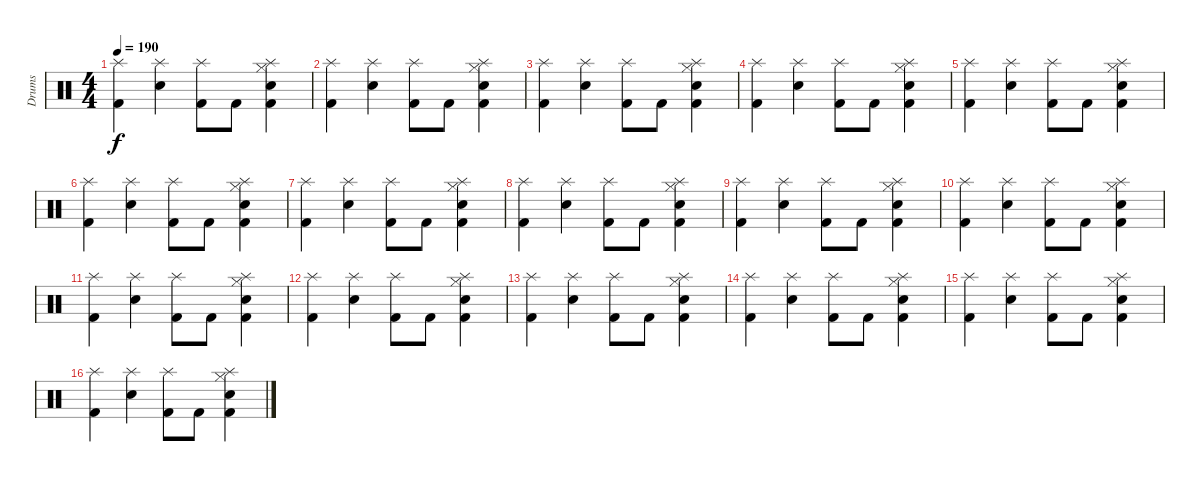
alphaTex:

\track ("Drums" "Drums") {instrument percussion}
\staff {score}
\articulation defaults
\ts (4 4)
\tempo 190
\clef neutral
\ks c
("Splash (hit)" "Kick (hit) 2").4{dy f} ("Splash (hit)" "Electric Snare (hit)").4 ("Splash (hit)" "Kick (hit) 2").8 "Kick (hit) 2".8 ("Splash (hit)" "Hi-Hat (closed)" "Electric Snare (hit)" "Kick (hit) 2").4 |
("Splash (hit)" "Kick (hit) 2").4 ("Splash (hit)" "Electric Snare (hit)").4 ("Splash (hit)" "Kick (hit) 2").8 "Kick (hit) 2".8 ("Splash (hit)" "Hi-Hat (closed)" "Electric Snare (hit)" "Kick (hit) 2").4 |
("Splash (hit)" "Kick (hit) 2").4 ("Splash (hit)" "Electric Snare (hit)").4 ("Splash (hit)" "Kick (hit) 2").8 "Kick (hit) 2".8 ("Splash (hit)" "Hi-Hat (closed)" "Electric Snare (hit)" "Kick (hit) 2").4 |
("Splash (hit)" "Kick (hit) 2").4 ("Splash (hit)" "Electric Snare (hit)").4 ("Splash (hit)" "Kick (hit) 2").8 "Kick (hit) 2".8 ("Splash (hit)" "Hi-Hat (closed)" "Electric Snare (hit)" "Kick (hit) 2").4 |
("Splash (hit)" "Kick (hit) 2").4 ("Splash (hit)" "Electric Snare (hit)").4 ("Splash (hit)" "Kick (hit) 2").8 "Kick (hit) 2".8 ("Splash (hit)" "Hi-Hat (closed)" "Electric Snare (hit)" "Kick (hit) 2").4 |
("Splash (hit)" "Kick (hit) 2").4 ("Splash (hit)" "Electric Snare (hit)").4 ("Splash (hit)" "Kick (hit) 2").8 "Kick (hit) 2".8 ("Splash (hit)" "Hi-Hat (closed)" "Electric Snare (hit)" "Kick (hit) 2").4 |
("Splash (hit)" "Kick (hit) 2").4 ("Splash (hit)" "Electric Snare (hit)").4 ("Splash (hit)" "Kick (hit) 2").8 "Kick (hit) 2".8 ("Splash (hit)" "Hi-Hat (closed)" "Electric Snare (hit)" "Kick (hit) 2").4 |
("Splash (hit)" "Kick (hit) 2").4 ("Splash (hit)" "Electric Snare (hit)").4 ("Splash (hit)" "Kick (hit) 2").8 "Kick (hit) 2".8 ("Splash (hit)" "Hi-Hat (closed)" "Electric Snare (hit)" "Kick (hit) 2").4 |
("Splash (hit)" "Kick (hit) 2").4 ("Splash (hit)" "Electric Snare (hit)").4 ("Splash (hit)" "Kick (hit) 2").8 "Kick (hit) 2".8 ("Splash (hit)" "Hi-Hat (closed)" "Electric Snare (hit)" "Kick (hit) 2").4 |
("Splash (hit)" "Kick (hit) 2").4 ("Splash (hit)" "Electric Snare (hit)").4 ("Splash (hit)" "Kick (hit) 2").8 "Kick (hit) 2".8 ("Splash (hit)" "Hi-Hat (closed)" "Electric Snare (hit)" "Kick (hit) 2").4 |
("Splash (hit)" "Kick (hit) 2").4 ("Splash (hit)" "Electric Snare (hit)").4 ("Splash (hit)" "Kick (hit) 2").8 "Kick (hit) 2".8 ("Splash (hit)" "Hi-Hat (closed)" "Electric Snare (hit)" "Kick (hit) 2").4 |
("Splash (hit)" "Kick (hit) 2").4 ("Splash (hit)" "Electric Snare (hit)").4 ("Splash (hit)" "Kick (hit) 2").8 "Kick (hit) 2".8 ("Splash (hit)" "Hi-Hat (closed)" "Electric Snare (hit)" "Kick (hit) 2").4 |
("Splash (hit)" "Kick (hit) 2").4 ("Splash (hit)" "Electric Snare (hit)").4 ("Splash (hit)" "Kick (hit) 2").8 "Kick (hit) 2".8 ("Splash (hit)" "Hi-Hat (closed)" "Electric Snare (hit)" "Kick (hit) 2").4 |
("Splash (hit)" "Kick (hit) 2").4 ("Splash (hit)" "Electric Snare (hit)").4 ("Splash (hit)" "Kick (hit) 2").8 "Kick (hit) 2".8 ("Splash (hit)" "Hi-Hat (closed)" "Electric Snare (hit)" "Kick (hit) 2").4 |
("Splash (hit)" "Kick (hit) 2").4 ("Splash (hit)" "Electric Snare (hit)").4 ("Splash (hit)" "Kick (hit) 2").8 "Kick (hit) 2".8 ("Splash (hit)" "Hi-Hat (closed)" "Electric Snare (hit)" "Kick (hit) 2").4 |
("Splash (hit)" "Kick (hit) 2").4 ("Splash (hit)" "Electric Snare (hit)").4 ("Splash (hit)" "Kick (hit) 2").8 "Kick (hit) 2".8 ("Splash (hit)" "Hi-Hat (closed)" "Electric Snare (hit)" "Kick (hit) 2").4
